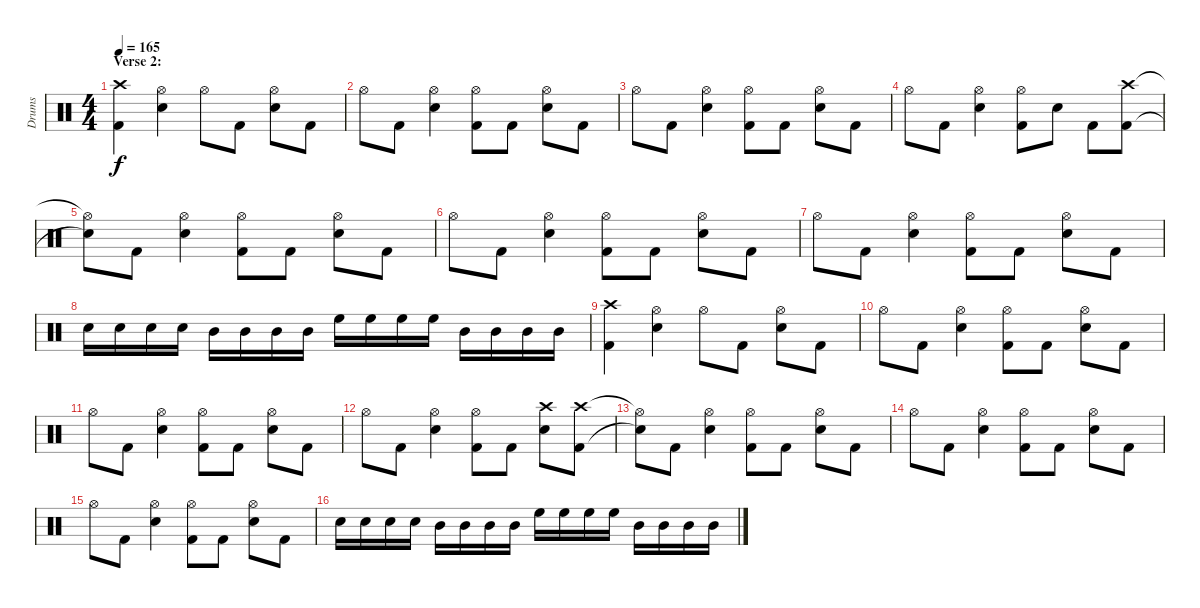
\track ("Drums" "Drums") {instrument percussion}
\staff {score}
\articulation defaults
\ts (4 4)
\section ("" "Verse 2:")
\tempo 165
\clef neutral
\ks c
("Crash high (hit)" "Kick (hit) 2").4{dy f} ("Hi-Hat (open)" "Electric Snare (hit)").4 "Hi-Hat (open)".8 "Kick (hit) 2".8 ("Hi-Hat (open)" "Electric Snare (hit)").8 "Kick (hit) 2".8 |
"Hi-Hat (open)".8 "Kick (hit) 2".8 ("Hi-Hat (open)" "Electric Snare (hit)").4 ("Hi-Hat (open)" "Kick (hit) 2").8 "Kick (hit) 2".8 ("Hi-Hat (open)" "Electric Snare (hit)").8 "Kick (hit) 2".8 |
"Hi-Hat (open)".8 "Kick (hit) 2".8 ("Hi-Hat (open)" "Electric Snare (hit)").4 ("Hi-Hat (open)" "Kick (hit) 2").8 "Kick (hit) 2".8 ("Hi-Hat (open)" "Electric Snare (hit)").8 "Kick (hit) 2".8 |
"Hi-Hat (open)".8 "Kick (hit) 2".8 ("Hi-Hat (open)" "Electric Snare (hit)").4 ("Hi-Hat (open)" "Kick (hit) 2").8 "Electric Snare (hit)".8 "Kick (hit) 2".8 ("Crash high (hit)" "Kick (hit) 2").8 |
("Hi-Hat (open)"{t} "Snare (hit)"{t}).8 "Kick (hit) 2".8 ("Hi-Hat (open)" "Electric Snare (hit)").4 ("Hi-Hat (open)" "Kick (hit) 2").8 "Kick (hit) 2".8 ("Hi-Hat (open)" "Electric Snare (hit)").8 "Kick (hit) 2".8 |
"Hi-Hat (open)".8 "Kick (hit) 2".8 ("Hi-Hat (open)" "Electric Snare (hit)").4 ("Hi-Hat (open)" "Kick (hit) 2").8 "Kick (hit) 2".8 ("Hi-Hat (open)" "Electric Snare (hit)").8 "Kick (hit) 2".8 |
"Hi-Hat (open)".8 "Kick (hit) 2".8 ("Hi-Hat (open)" "Electric Snare (hit)").4 ("Hi-Hat (open)" "Kick (hit) 2").8 "Kick (hit) 2".8 ("Hi-Hat (open)" "Electric Snare (hit)").8 "Kick (hit) 2".8 |
"Electric Snare (hit)".16 "Electric Snare (hit)".16 "Electric Snare (hit)".16 "Electric Snare (hit)".16 "Mid Tom (hit)".16 "Mid Tom (hit)".16 "Mid Tom (hit)".16 "Mid Tom (hit)".16 "High Floor Tom (hit)".16 "High Floor Tom (hit)".16 "High Floor Tom (hit)".16 "High Floor Tom (hit)".16 "Mid Tom (hit)".16 "Mid Tom (hit)".16 "Mid Tom (hit)".16 "Mid Tom (hit)".16 |
("Crash high (hit)" "Kick (hit) 2").4 ("Hi-Hat (open)" "Electric Snare (hit)").4 "Hi-Hat (open)".8 "Kick (hit) 2".8 ("Hi-Hat (open)" "Electric Snare (hit)").8 "Kick (hit) 2".8 |
"Hi-Hat (open)".8 "Kick (hit) 2".8 ("Hi-Hat (open)" "Electric Snare (hit)").4 ("Hi-Hat (open)" "Kick (hit) 2").8 "Kick (hit) 2".8 ("Hi-Hat (open)" "Electric Snare (hit)").8 "Kick (hit) 2".8 |
"Hi-Hat (open)".8 "Kick (hit) 2".8 ("Hi-Hat (open)" "Electric Snare (hit)").4 ("Hi-Hat (open)" "Kick (hit) 2").8 "Kick (hit) 2".8 ("Hi-Hat (open)" "Electric Snare (hit)").8 "Kick (hit) 2".8 |
"Hi-Hat (open)".8 "Kick (hit) 2".8 ("Hi-Hat (open)" "Electric Snare (hit)").4 ("Hi-Hat (open)" "Kick (hit) 2").8 "Kick (hit) 2".8 ("Crash high (hit)" "Electric Snare (hit)").8 ("Crash high (hit)" "Kick (hit) 2").8 |
("Hi-Hat (open)"{t} "Snare (hit)"{t}).8 "Kick (hit) 2".8 ("Hi-Hat (open)" "Electric Snare (hit)").4 ("Hi-Hat (open)" "Kick (hit) 2").8 "Kick (hit) 2".8 ("Hi-Hat (open)" "Electric Snare (hit)").8 "Kick (hit) 2".8 |
"Hi-Hat (open)".8 "Kick (hit) 2".8 ("Hi-Hat (open)" "Electric Snare (hit)").4 ("Hi-Hat (open)" "Kick (hit) 2").8 "Kick (hit) 2".8 ("Hi-Hat (open)" "Electric Snare (hit)").8 "Kick (hit) 2".8 |
"Hi-Hat (open)".8 "Kick (hit) 2".8 ("Hi-Hat (open)" "Electric Snare (hit)").4 ("Hi-Hat (open)" "Kick (hit) 2").8 "Kick (hit) 2".8 ("Hi-Hat (open)" "Electric Snare (hit)").8 "Kick (hit) 2".8 |
"Electric Snare (hit)".16 "Electric Snare (hit)".16 "Electric Snare (hit)".16 "Electric Snare (hit)".16 "Mid Tom (hit)".16 "Mid Tom (hit)".16 "Mid Tom (hit)".16 "Mid Tom (hit)".16 "High Floor Tom (hit)".16 "High Floor Tom (hit)".16 "High Floor Tom (hit)".16 "High Floor Tom (hit)".16 "Mid Tom (hit)".16 "Mid Tom (hit)".16 "Mid Tom (hit)".16 "Mid Tom (hit)".16
